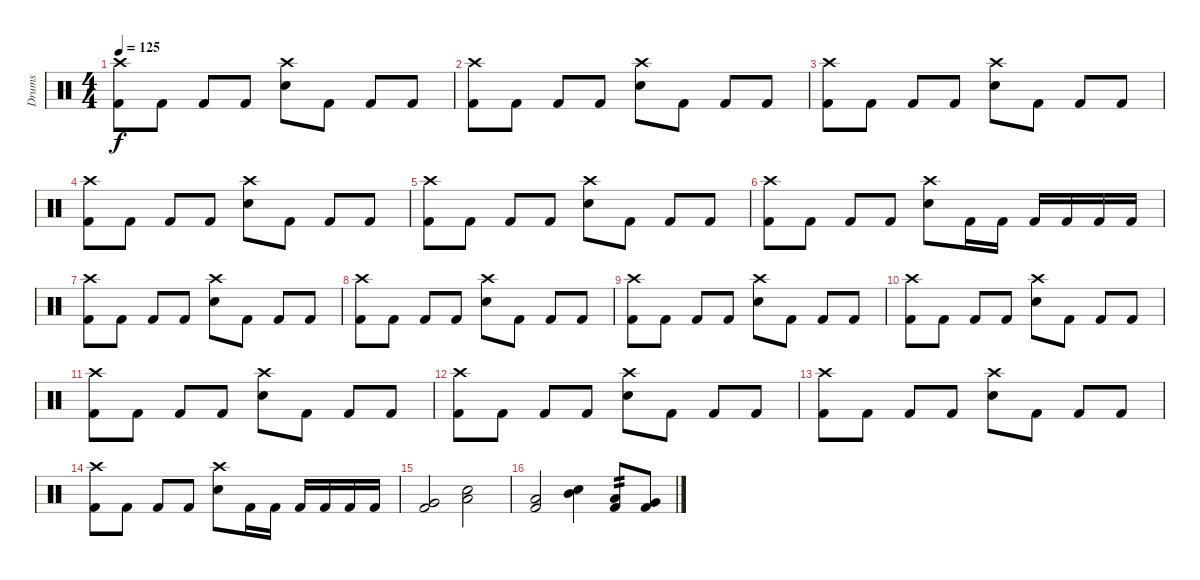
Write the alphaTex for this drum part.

\track ("Drums" "Drums") {instrument percussion}
\staff {score}
\articulation defaults
\ts (4 4)
\tempo 125
\clef neutral
\ks c
("Crash high (hit)" "Kick (hit) 2").8{dy f} "Kick (hit) 2".8 "Kick (hit) 2".8 "Kick (hit) 2".8 ("Crash high (hit)" "Snare (hit) 2").8 "Kick (hit) 2".8 "Kick (hit) 2".8 "Kick (hit) 2".8 |
("Crash high (hit)" "Kick (hit) 2").8 "Kick (hit) 2".8 "Kick (hit) 2".8 "Kick (hit) 2".8 ("Crash high (hit)" "Snare (hit) 2").8 "Kick (hit) 2".8 "Kick (hit) 2".8 "Kick (hit) 2".8 |
("Crash high (hit)" "Kick (hit) 2").8 "Kick (hit) 2".8 "Kick (hit) 2".8 "Kick (hit) 2".8 ("Crash high (hit)" "Snare (hit) 2").8 "Kick (hit) 2".8 "Kick (hit) 2".8 "Kick (hit) 2".8 |
("Crash high (hit)" "Kick (hit) 2").8 "Kick (hit) 2".8 "Kick (hit) 2".8 "Kick (hit) 2".8 ("Crash high (hit)" "Snare (hit) 2").8 "Kick (hit) 2".8 "Kick (hit) 2".8 "Kick (hit) 2".8 |
("Crash high (hit)" "Kick (hit) 2").8 "Kick (hit) 2".8 "Kick (hit) 2".8 "Kick (hit) 2".8 ("Crash high (hit)" "Snare (hit) 2").8 "Kick (hit) 2".8 "Kick (hit) 2".8 "Kick (hit) 2".8 |
("Crash high (hit)" "Kick (hit) 2").8 "Kick (hit) 2".8 "Kick (hit) 2".8 "Kick (hit) 2".8 ("Crash high (hit)" "Snare (hit) 2").8 "Kick (hit) 2".16 "Kick (hit) 2".16 "Kick (hit) 2".16 "Kick (hit) 2".16 "Kick (hit) 2".16 "Kick (hit) 2".16 |
("Crash high (hit)" "Kick (hit) 2").8 "Kick (hit) 2".8 "Kick (hit) 2".8 "Kick (hit) 2".8 ("Crash high (hit)" "Snare (hit) 2").8 "Kick (hit) 2".8 "Kick (hit) 2".8 "Kick (hit) 2".8 |
("Crash high (hit)" "Kick (hit) 2").8 "Kick (hit) 2".8 "Kick (hit) 2".8 "Kick (hit) 2".8 ("Crash high (hit)" "Snare (hit) 2").8 "Kick (hit) 2".8 "Kick (hit) 2".8 "Kick (hit) 2".8 |
("Crash high (hit)" "Kick (hit) 2").8 "Kick (hit) 2".8 "Kick (hit) 2".8 "Kick (hit) 2".8 ("Crash high (hit)" "Snare (hit) 2").8 "Kick (hit) 2".8 "Kick (hit) 2".8 "Kick (hit) 2".8 |
("Crash high (hit)" "Kick (hit) 2").8 "Kick (hit) 2".8 "Kick (hit) 2".8 "Kick (hit) 2".8 ("Crash high (hit)" "Snare (hit) 2").8 "Kick (hit) 2".8 "Kick (hit) 2".8 "Kick (hit) 2".8 |
("Crash high (hit)" "Kick (hit) 2").8 "Kick (hit) 2".8 "Kick (hit) 2".8 "Kick (hit) 2".8 ("Crash high (hit)" "Snare (hit) 2").8 "Kick (hit) 2".8 "Kick (hit) 2".8 "Kick (hit) 2".8 |
("Crash high (hit)" "Kick (hit) 2").8 "Kick (hit) 2".8 "Kick (hit) 2".8 "Kick (hit) 2".8 ("Crash high (hit)" "Snare (hit) 2").8 "Kick (hit) 2".8 "Kick (hit) 2".8 "Kick (hit) 2".8 |
("Crash high (hit)" "Kick (hit) 2").8 "Kick (hit) 2".8 "Kick (hit) 2".8 "Kick (hit) 2".8 ("Crash high (hit)" "Snare (hit) 2").8 "Kick (hit) 2".8 "Kick (hit) 2".8 "Kick (hit) 2".8 |
("Crash high (hit)" "Kick (hit) 2").8 "Kick (hit) 2".8 "Kick (hit) 2".8 "Kick (hit) 2".8 ("Crash high (hit)" "Snare (hit) 2").8 "Kick (hit) 2".16 "Kick (hit) 2".16 "Kick (hit) 2".16 "Kick (hit) 2".16 "Kick (hit) 2".16 "Kick (hit) 2".16 |
("Very Low Tom (hit)" "Kick (hit) 2").2 ("Low Tom (hit)" "Snare (hit) 2").2 |
("Low Tom (hit)" "Kick (hit) 2").2 ("Mid Tom (hit)" "Snare (hit) 2").4 ("Low Tom (hit)" "Kick (hit) 2").8{tp 2} ("Very Low Tom (hit)" "Kick (hit) 2").8
